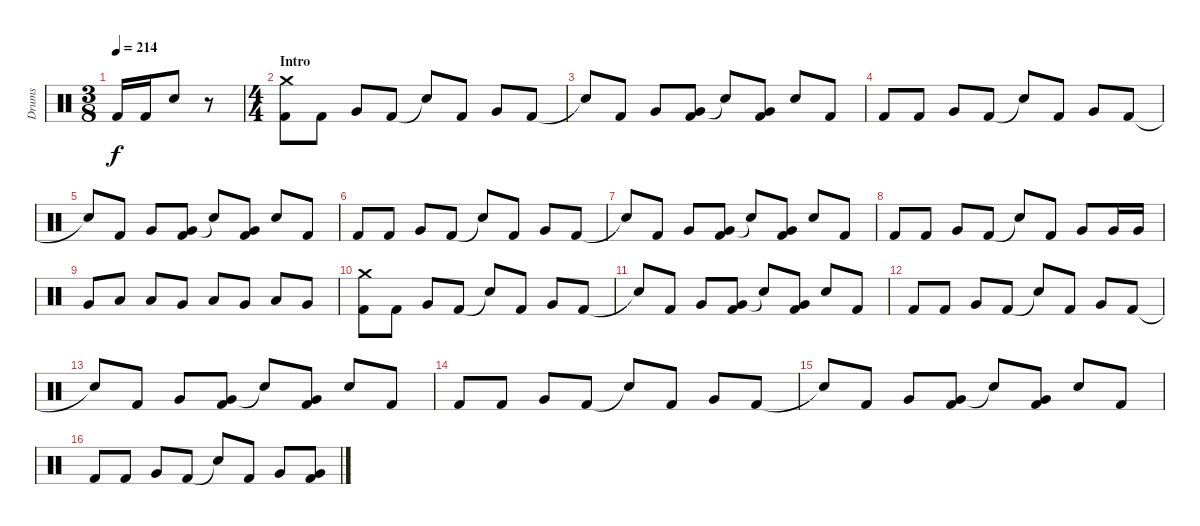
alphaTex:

\track ("Drums" "Drums") {instrument percussion}
\staff {score}
\articulation defaults
\ts (3 8)
\tempo 214
\clef neutral
\ks c "Kick (hit) 2".16{dy f} "Kick (hit) 2".16 "Electric Snare (hit)".8
r.8 |
\ts (4 4)
\section ("" "Intro")
("Crash medium (hit)" "Kick (hit) 2").8 "Kick (hit) 2".8 "Very Low Tom (hit)".8 "Kick (hit) 2".8 "Snare (hit)"{t}.8 "Kick (hit) 2".8 "Very Low Tom (hit)".8 "Kick (hit) 2".8 |
"Snare (hit)"{t}.8 "Kick (hit) 2".8 "Very Low Tom (hit)".8 ("Very Low Tom (hit)" "Kick (hit) 2").8 "Snare (hit)"{t}.8 ("Very Low Tom (hit)" "Kick (hit) 2").8 "Electric Snare (hit)".8 "Kick (hit) 2".8 |
"Kick (hit) 2".8 "Kick (hit) 2".8 "Very Low Tom (hit)".8 "Kick (hit) 2".8 "Snare (hit)"{t}.8 "Kick (hit) 2".8 "Very Low Tom (hit)".8 "Kick (hit) 2".8 |
"Snare (hit)"{t}.8 "Kick (hit) 2".8 "Very Low Tom (hit)".8 ("Very Low Tom (hit)" "Kick (hit) 2").8 "Snare (hit)"{t}.8 ("Very Low Tom (hit)" "Kick (hit) 2").8 "Electric Snare (hit)".8 "Kick (hit) 2".8 |
"Kick (hit) 2".8 "Kick (hit) 2".8 "Very Low Tom (hit)".8 "Kick (hit) 2".8 "Snare (hit)"{t}.8 "Kick (hit) 2".8 "Very Low Tom (hit)".8 "Kick (hit) 2".8 |
"Snare (hit)"{t}.8 "Kick (hit) 2".8 "Very Low Tom (hit)".8 ("Very Low Tom (hit)" "Kick (hit) 2").8 "Snare (hit)"{t}.8 ("Very Low Tom (hit)" "Kick (hit) 2").8 "Electric Snare (hit)".8 "Kick (hit) 2".8 |
"Kick (hit) 2".8 "Kick (hit) 2".8 "Very Low Tom (hit)".8 "Kick (hit) 2".8 "Snare (hit)"{t}.8 "Kick (hit) 2".8 "Very Low Tom (hit)".8 "Very Low Tom (hit)".16 "Very Low Tom (hit)".16 |
"Very Low Tom (hit)".8 "Low Tom (hit)".8 "Low Tom (hit)".8 "Very Low Tom (hit)".8 "Low Tom (hit)".8 "Very Low Tom (hit)".8 "Low Floor Tom (hit)".8 "Very Low Tom (hit)".8 |
("Crash medium (hit)" "Kick (hit) 2").8 "Kick (hit) 2".8 "Very Low Tom (hit)".8 "Kick (hit) 2".8 "Snare (hit)"{t}.8 "Kick (hit) 2".8 "Very Low Tom (hit)".8 "Kick (hit) 2".8 |
"Snare (hit)"{t}.8 "Kick (hit) 2".8 "Very Low Tom (hit)".8 ("Very Low Tom (hit)" "Kick (hit) 2").8 "Snare (hit)"{t}.8 ("Very Low Tom (hit)" "Kick (hit) 2").8 "Electric Snare (hit)".8 "Kick (hit) 2".8 |
"Kick (hit) 2".8 "Kick (hit) 2".8 "Very Low Tom (hit)".8 "Kick (hit) 2".8 "Snare (hit)"{t}.8 "Kick (hit) 2".8 "Very Low Tom (hit)".8 "Kick (hit) 2".8 |
"Snare (hit)"{t}.8 "Kick (hit) 2".8 "Very Low Tom (hit)".8 ("Very Low Tom (hit)" "Kick (hit) 2").8 "Snare (hit)"{t}.8 ("Very Low Tom (hit)" "Kick (hit) 2").8 "Electric Snare (hit)".8 "Kick (hit) 2".8 |
"Kick (hit) 2".8 "Kick (hit) 2".8 "Very Low Tom (hit)".8 "Kick (hit) 2".8 "Snare (hit)"{t}.8 "Kick (hit) 2".8 "Very Low Tom (hit)".8 "Kick (hit) 2".8 |
"Snare (hit)"{t}.8 "Kick (hit) 2".8 "Very Low Tom (hit)".8 ("Very Low Tom (hit)" "Kick (hit) 2").8 "Snare (hit)"{t}.8 ("Very Low Tom (hit)" "Kick (hit) 2").8 "Electric Snare (hit)".8 "Kick (hit) 2".8 |
"Kick (hit) 2".8 "Kick (hit) 2".8 "Very Low Tom (hit)".8 "Kick (hit) 2".8 "Snare (hit)"{t}.8 "Kick (hit) 2".8 "Very Low Tom (hit)".8 ("Very Low Tom (hit)" "Kick (hit) 2").8
